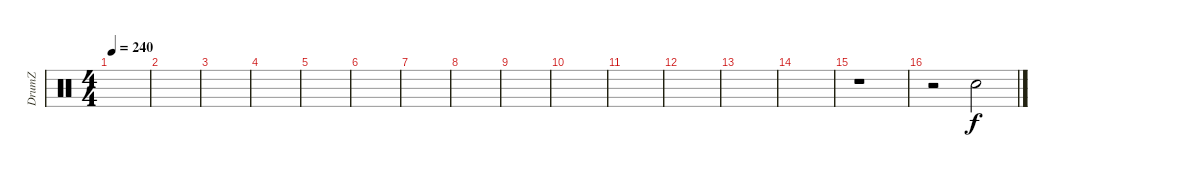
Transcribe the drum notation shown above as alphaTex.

\track ("DrumZ" "DrumZ") {instrument percussion}
\staff {score}
\articulation defaults
\ts (4 4)
\tempo 240
\clef neutral
\ks c
|
|
|
|
|
|
|
|
|
|
|
|
|
|
r.1 |
r.2 "Electric Snare (hit)".2{dy f}
